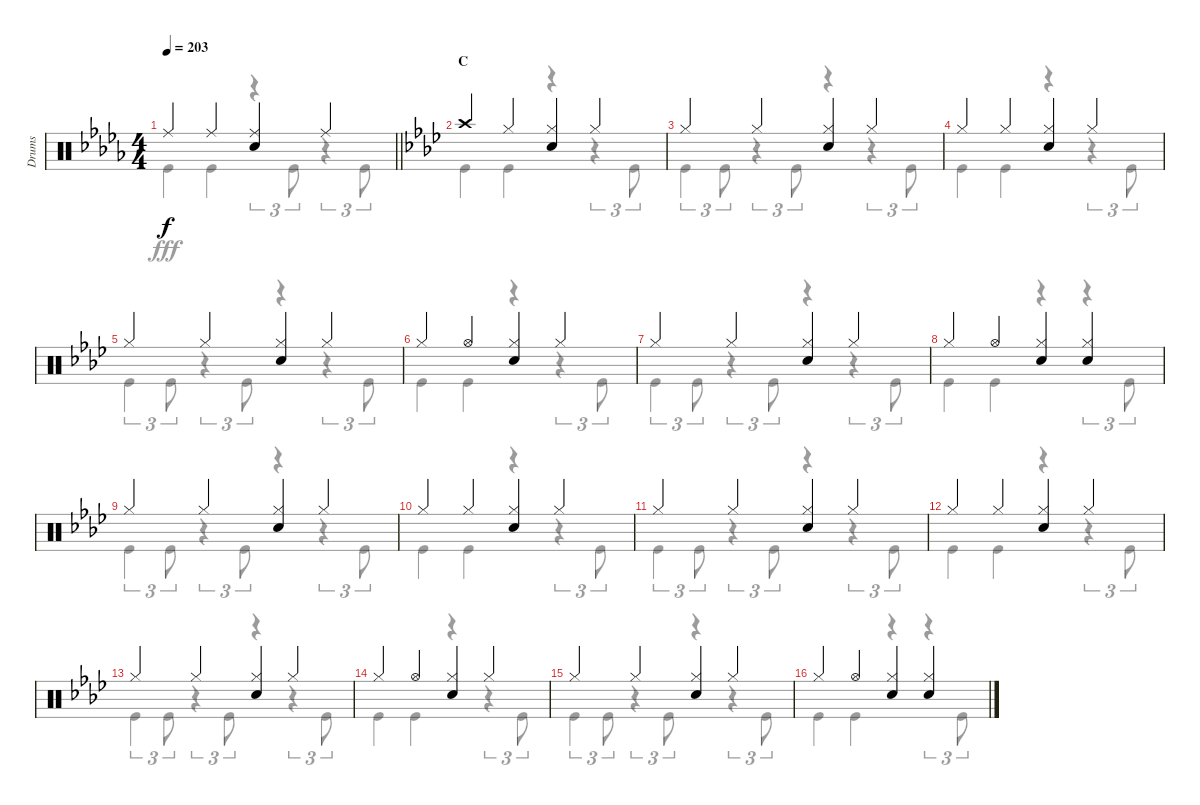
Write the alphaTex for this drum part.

\track ("Drums" "Drums") {instrument percussion}
\staff {score}
\articulation defaults
\voice
\ts (4 4)
\tempo 203
\clef neutral
\barLineRight lightlight
\ks db "Ride (middle)".4{dy f} "Ride (middle)".4
("Ride (middle)" "Snare (hit) 2").4 "Ride (middle)".4 |
\section ("" "C")
\ks ab "Crash high (hit)".4 "Hi-Hat (closed)".4
("Hi-Hat (closed)" "Snare (hit) 2").4 "Hi-Hat (closed)".4 |
"Hi-Hat (closed)".4 "Hi-Hat (closed)".4 ("Hi-Hat (closed)" "Snare (hit) 2").4 "Hi-Hat (closed)".4 |
"Hi-Hat (closed)".4 "Hi-Hat (closed)".4 ("Hi-Hat (closed)" "Snare (hit) 2").4 "Hi-Hat (closed)".4 |
"Hi-Hat (closed)".4 "Hi-Hat (closed)".4 ("Hi-Hat (closed)" "Snare (hit) 2").4 "Hi-Hat (closed)".4 |
"Hi-Hat (closed)".4 "Hi-Hat (open)".4 ("Hi-Hat (closed)" "Snare (hit) 2").4 "Hi-Hat (closed)".4 |
"Hi-Hat (closed)".4 "Hi-Hat (closed)".4 ("Hi-Hat (closed)" "Snare (hit) 2").4 "Hi-Hat (closed)".4 |
"Hi-Hat (closed)".4 "Hi-Hat (open)".4 ("Hi-Hat (closed)" "Snare (hit) 2").4 ("Hi-Hat (closed)" "Snare (hit) 2").4 |
"Hi-Hat (closed)".4 "Hi-Hat (closed)".4 ("Hi-Hat (closed)" "Snare (hit) 2").4 "Hi-Hat (closed)".4 |
"Hi-Hat (closed)".4 "Hi-Hat (closed)".4 ("Hi-Hat (closed)" "Snare (hit) 2").4 "Hi-Hat (closed)".4 |
"Hi-Hat (closed)".4 "Hi-Hat (closed)".4 ("Hi-Hat (closed)" "Snare (hit) 2").4 "Hi-Hat (closed)".4 |
"Hi-Hat (closed)".4 "Hi-Hat (closed)".4 ("Hi-Hat (closed)" "Snare (hit) 2").4 "Hi-Hat (closed)".4 |
"Hi-Hat (closed)".4 "Hi-Hat (closed)".4 ("Hi-Hat (closed)" "Snare (hit) 2").4 "Hi-Hat (closed)".4 |
"Hi-Hat (closed)".4 "Hi-Hat (open)".4 ("Hi-Hat (closed)" "Snare (hit) 2").4 "Hi-Hat (closed)".4 |
"Hi-Hat (closed)".4 "Hi-Hat (closed)".4 ("Hi-Hat (closed)" "Snare (hit) 2").4 "Hi-Hat (closed)".4 |
"Hi-Hat (closed)".4 "Hi-Hat (open)".4 ("Hi-Hat (closed)" "Snare (hit) 2").4 ("Hi-Hat (closed)" "Snare (hit) 2").4
\voice
\clef neutral
\ottava regular
\simile none
\barLineRight lightlight
\ks db "Kick (hit)".4{dy fff} "Kick (hit)".4
r.4{tu (3 2)} "Kick (hit)".8{tu (3 2)} r.4{tu (3 2)} "Kick (hit)".8{tu (3 2)} |
\ks ab "Kick (hit)".4 "Kick (hit)".4
r.4 r.4{tu (3 2)} "Kick (hit)".8{tu (3 2)} |
"Kick (hit)".4{tu (3 2)} "Kick (hit)".8{tu (3 2)} r.4{tu (3 2)} "Kick (hit)".8{tu (3 2)} r.4 r.4{tu (3 2)} "Kick (hit)".8{tu (3 2)} |
"Kick (hit)".4 "Kick (hit)".4 r.4 r.4{tu (3 2)} "Kick (hit)".8{tu (3 2)} |
"Kick (hit)".4{tu (3 2)} "Kick (hit)".8{tu (3 2)} r.4{tu (3 2)} "Kick (hit)".8{tu (3 2)} r.4 r.4{tu (3 2)} "Kick (hit)".8{tu (3 2)} |
"Kick (hit)".4 "Kick (hit)".4 r.4 r.4{tu (3 2)} "Kick (hit)".8{tu (3 2)} |
"Kick (hit)".4{tu (3 2)} "Kick (hit)".8{tu (3 2)} r.4{tu (3 2)} "Kick (hit)".8{tu (3 2)} r.4 r.4{tu (3 2)} "Kick (hit)".8{tu (3 2)} |
"Kick (hit)".4 "Kick (hit)".4 r.4 r.4{tu (3 2)} "Kick (hit)".8{tu (3 2)} |
"Kick (hit)".4{tu (3 2)} "Kick (hit)".8{tu (3 2)} r.4{tu (3 2)} "Kick (hit)".8{tu (3 2)} r.4 r.4{tu (3 2)} "Kick (hit)".8{tu (3 2)} |
"Kick (hit)".4 "Kick (hit)".4 r.4 r.4{tu (3 2)} "Kick (hit)".8{tu (3 2)} |
"Kick (hit)".4{tu (3 2)} "Kick (hit)".8{tu (3 2)} r.4{tu (3 2)} "Kick (hit)".8{tu (3 2)} r.4 r.4{tu (3 2)} "Kick (hit)".8{tu (3 2)} |
"Kick (hit)".4 "Kick (hit)".4 r.4 r.4{tu (3 2)} "Kick (hit)".8{tu (3 2)} |
"Kick (hit)".4{tu (3 2)} "Kick (hit)".8{tu (3 2)} r.4{tu (3 2)} "Kick (hit)".8{tu (3 2)} r.4 r.4{tu (3 2)} "Kick (hit)".8{tu (3 2)} |
"Kick (hit)".4 "Kick (hit)".4 r.4 r.4{tu (3 2)} "Kick (hit)".8{tu (3 2)} |
"Kick (hit)".4{tu (3 2)} "Kick (hit)".8{tu (3 2)} r.4{tu (3 2)} "Kick (hit)".8{tu (3 2)} r.4 r.4{tu (3 2)} "Kick (hit)".8{tu (3 2)} |
"Kick (hit)".4 "Kick (hit)".4 r.4 r.4{tu (3 2)} "Kick (hit)".8{tu (3 2)}
